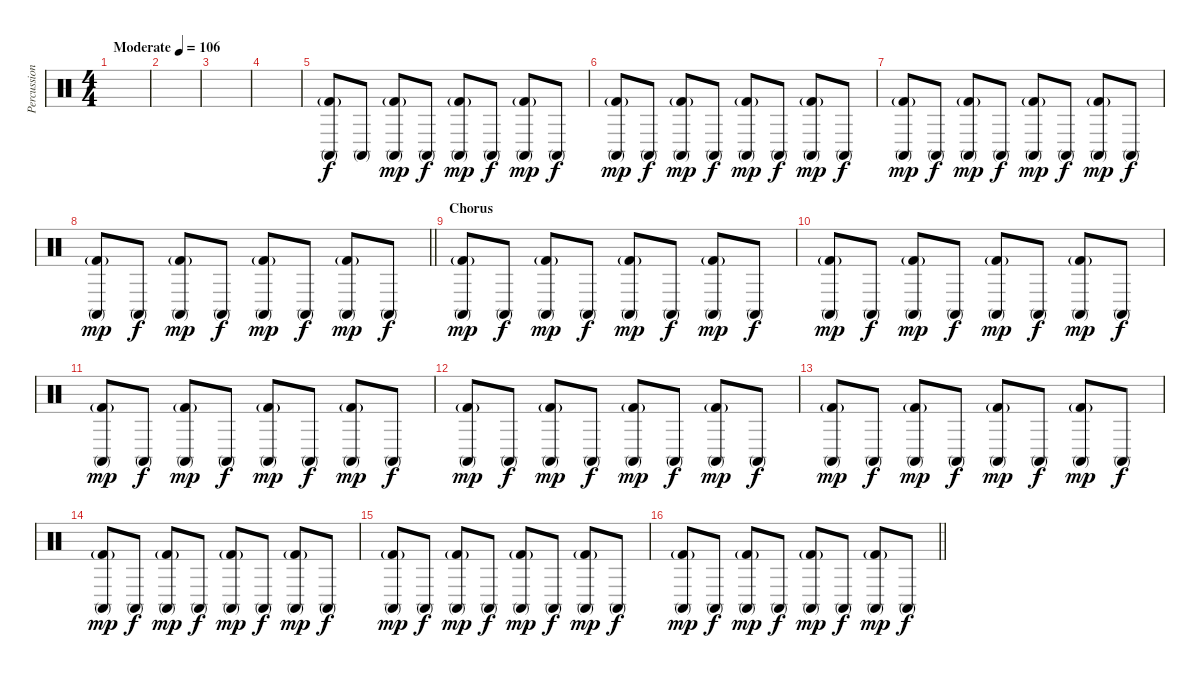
\track ("Percussion" "Percussion") {instrument percussion}
\staff {score}
\articulation defaults
\ts (4 4)
\tempo (106 "Moderate")
\clef neutral
\ks c
|
|
|
|
("Conga high (mute)" "Kick (hit) 2"{g}).8 "Conga high (mute)".8{dy f} ("Conga high (mute)" "Kick (hit) 2"{g}).8{dy mp} "Conga high (mute)".8{dy f} ("Conga high (mute)" "Kick (hit) 2"{g}).8{dy mp} "Conga high (mute)".8{dy f} ("Conga high (mute)" "Kick (hit) 2"{g}).8{dy mp} "Conga high (mute)".8{dy f} |
("Conga high (mute)" "Kick (hit) 2"{g}).8{dy mp} "Conga high (mute)".8{dy f} ("Conga high (mute)" "Kick (hit) 2"{g}).8{dy mp} "Conga high (mute)".8{dy f} ("Conga high (mute)" "Kick (hit) 2"{g}).8{dy mp} "Conga high (mute)".8{dy f} ("Conga high (mute)" "Kick (hit) 2"{g}).8{dy mp} "Conga high (mute)".8{dy f} |
("Conga high (mute)" "Kick (hit) 2"{g}).8{dy mp} "Conga high (mute)".8{dy f} ("Conga high (mute)" "Kick (hit) 2"{g}).8{dy mp} "Conga high (mute)".8{dy f} ("Conga high (mute)" "Kick (hit) 2"{g}).8{dy mp} "Conga high (mute)".8{dy f} ("Conga high (mute)" "Kick (hit) 2"{g}).8{dy mp} "Conga high (mute)".8{dy f} |
\barLineRight lightlight
("Conga high (mute)" "Kick (hit) 2"{g}).8{dy mp} "Conga high (mute)".8{dy f} ("Conga high (mute)" "Kick (hit) 2"{g}).8{dy mp} "Conga high (mute)".8{dy f} ("Conga high (mute)" "Kick (hit) 2"{g}).8{dy mp} "Conga high (mute)".8{dy f} ("Conga high (mute)" "Kick (hit) 2"{g}).8{dy mp} "Conga high (mute)".8{dy f} |
\section ("" "Chorus")
("Conga high (mute)" "Kick (hit) 2"{g}).8{dy mp} "Conga high (mute)".8{dy f} ("Conga high (mute)" "Kick (hit) 2"{g}).8{dy mp} "Conga high (mute)".8{dy f} ("Conga high (mute)" "Kick (hit) 2"{g}).8{dy mp} "Conga high (mute)".8{dy f} ("Conga high (mute)" "Kick (hit) 2"{g}).8{dy mp} "Conga high (mute)".8{dy f} |
("Conga high (mute)" "Kick (hit) 2"{g}).8{dy mp} "Conga high (mute)".8{dy f} ("Conga high (mute)" "Kick (hit) 2"{g}).8{dy mp} "Conga high (mute)".8{dy f} ("Conga high (mute)" "Kick (hit) 2"{g}).8{dy mp} "Conga high (mute)".8{dy f} ("Conga high (mute)" "Kick (hit) 2"{g}).8{dy mp} "Conga high (mute)".8{dy f} |
("Conga high (mute)" "Kick (hit) 2"{g}).8{dy mp} "Conga high (mute)".8{dy f} ("Conga high (mute)" "Kick (hit) 2"{g}).8{dy mp} "Conga high (mute)".8{dy f} ("Conga high (mute)" "Kick (hit) 2"{g}).8{dy mp} "Conga high (mute)".8{dy f} ("Conga high (mute)" "Kick (hit) 2"{g}).8{dy mp} "Conga high (mute)".8{dy f} |
("Conga high (mute)" "Kick (hit) 2"{g}).8{dy mp} "Conga high (mute)".8{dy f} ("Conga high (mute)" "Kick (hit) 2"{g}).8{dy mp} "Conga high (mute)".8{dy f} ("Conga high (mute)" "Kick (hit) 2"{g}).8{dy mp} "Conga high (mute)".8{dy f} ("Conga high (mute)" "Kick (hit) 2"{g}).8{dy mp} "Conga high (mute)".8{dy f} |
("Conga high (mute)" "Kick (hit) 2"{g}).8{dy mp} "Conga high (mute)".8{dy f} ("Conga high (mute)" "Kick (hit) 2"{g}).8{dy mp} "Conga high (mute)".8{dy f} ("Conga high (mute)" "Kick (hit) 2"{g}).8{dy mp} "Conga high (mute)".8{dy f} ("Conga high (mute)" "Kick (hit) 2"{g}).8{dy mp} "Conga high (mute)".8{dy f} |
("Conga high (mute)" "Kick (hit) 2"{g}).8{dy mp} "Conga high (mute)".8{dy f} ("Conga high (mute)" "Kick (hit) 2"{g}).8{dy mp} "Conga high (mute)".8{dy f} ("Conga high (mute)" "Kick (hit) 2"{g}).8{dy mp} "Conga high (mute)".8{dy f} ("Conga high (mute)" "Kick (hit) 2"{g}).8{dy mp} "Conga high (mute)".8{dy f} |
("Conga high (mute)" "Kick (hit) 2"{g}).8{dy mp} "Conga high (mute)".8{dy f} ("Conga high (mute)" "Kick (hit) 2"{g}).8{dy mp} "Conga high (mute)".8{dy f} ("Conga high (mute)" "Kick (hit) 2"{g}).8{dy mp} "Conga high (mute)".8{dy f} ("Conga high (mute)" "Kick (hit) 2"{g}).8{dy mp} "Conga high (mute)".8{dy f} |
\barLineRight lightlight
("Conga high (mute)" "Kick (hit) 2"{g}).8{dy mp} "Conga high (mute)".8{dy f} ("Conga high (mute)" "Kick (hit) 2"{g}).8{dy mp} "Conga high (mute)".8{dy f} ("Conga high (mute)" "Kick (hit) 2"{g}).8{dy mp} "Conga high (mute)".8{dy f} ("Conga high (mute)" "Kick (hit) 2"{g}).8{dy mp} "Conga high (mute)".8{dy f}
